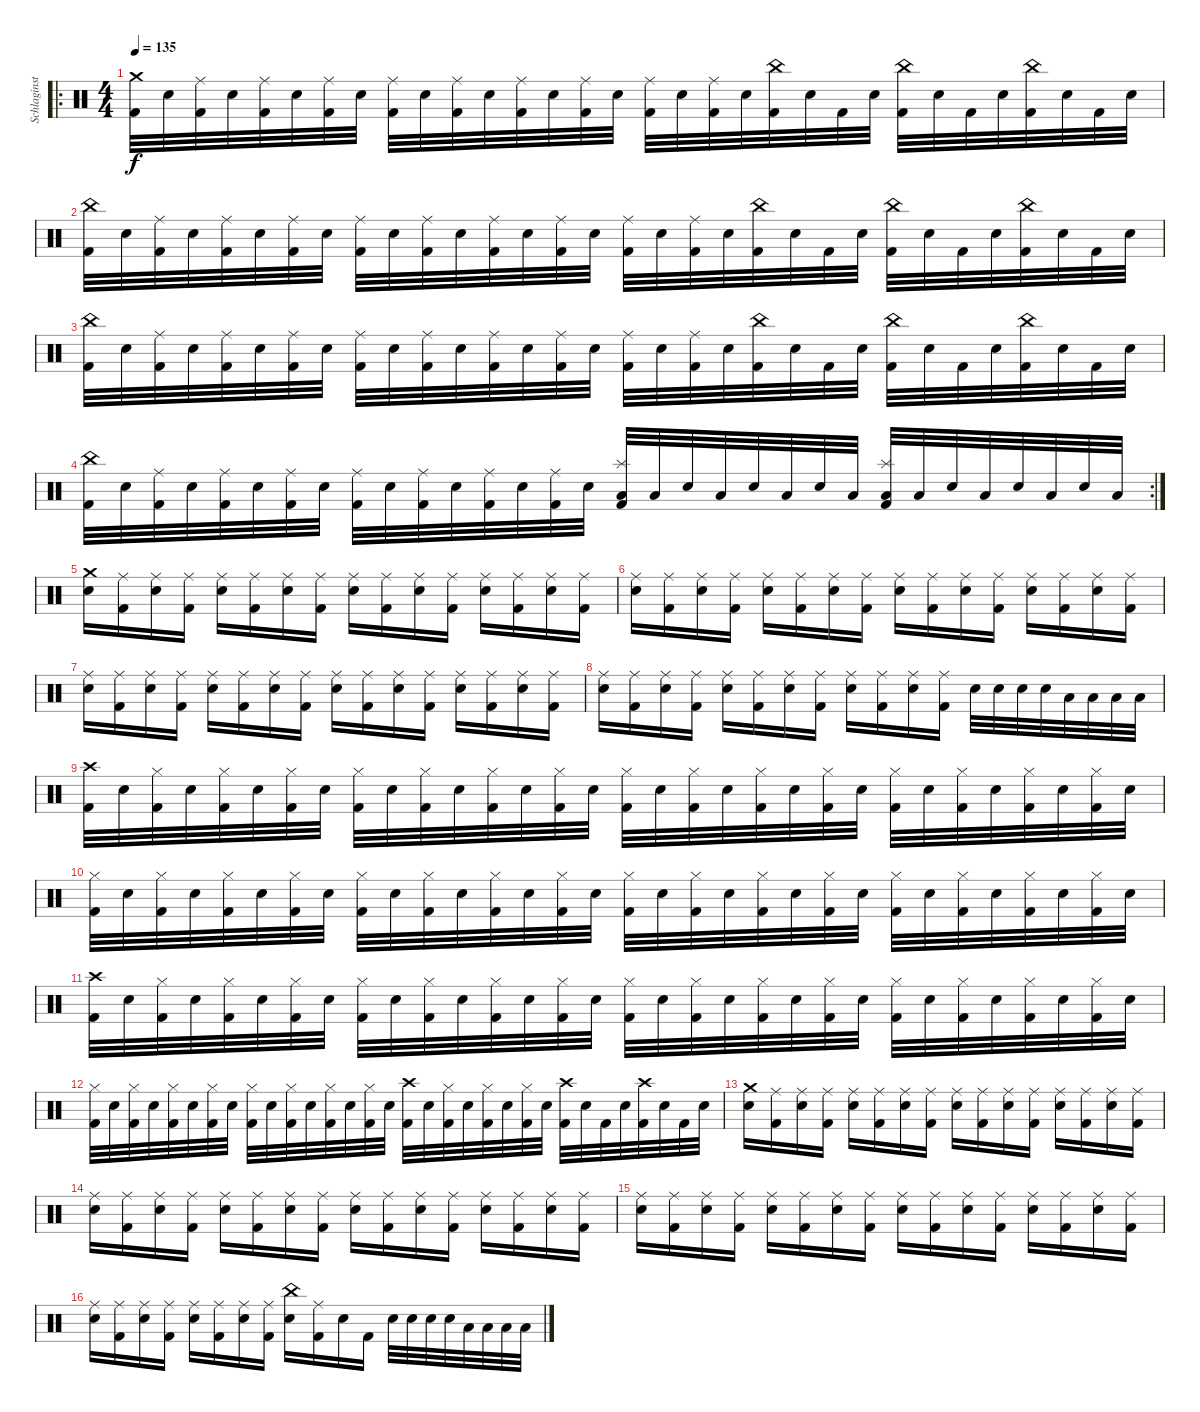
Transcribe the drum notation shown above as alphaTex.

\track ("Schlaginstrumente - Auswahl" "Schlaginst") {instrument percussion}
\staff {score}
\articulation defaults
\ro
\ts (4 4)
\tempo 135
\clef neutral
\ks c
("Crash medium (hit)" "Kick (hit) 2").32{dy f} "Electric Snare (hit)".32 ("Ride (middle)" "Kick (hit) 2").32 "Electric Snare (hit)".32 ("Ride (middle)" "Kick (hit) 2").32 "Electric Snare (hit)".32 ("Ride (middle)" "Kick (hit) 2").32 "Electric Snare (hit)".32 ("Ride (middle)" "Kick (hit) 2").32 "Electric Snare (hit)".32 ("Ride (middle)" "Kick (hit) 2").32 "Electric Snare (hit)".32 ("Ride (middle)" "Kick (hit) 2").32 "Electric Snare (hit)".32 ("Ride (middle)" "Kick (hit) 2").32 "Electric Snare (hit)".32 ("Ride (middle)" "Kick (hit) 2").32 "Electric Snare (hit)".32 ("Ride (middle)" "Kick (hit) 2").32 "Electric Snare (hit)".32 ("China (hit)" "Kick (hit) 2").32 "Electric Snare (hit)".32 "Kick (hit) 2".32 "Electric Snare (hit)".32 ("China (hit)" "Kick (hit) 2").32 "Electric Snare (hit)".32 "Kick (hit) 2".32 "Electric Snare (hit)".32 ("China (hit)" "Kick (hit) 2").32 "Electric Snare (hit)".32 "Kick (hit) 2".32 "Electric Snare (hit)".32 |
("China (hit)" "Kick (hit) 2").32 "Electric Snare (hit)".32 ("Ride (middle)" "Kick (hit) 2").32 "Electric Snare (hit)".32 ("Ride (middle)" "Kick (hit) 2").32 "Electric Snare (hit)".32 ("Ride (middle)" "Kick (hit) 2").32 "Electric Snare (hit)".32 ("Ride (middle)" "Kick (hit) 2").32 "Electric Snare (hit)".32 ("Ride (middle)" "Kick (hit) 2").32 "Electric Snare (hit)".32 ("Ride (middle)" "Kick (hit) 2").32 "Electric Snare (hit)".32 ("Ride (middle)" "Kick (hit) 2").32 "Electric Snare (hit)".32 ("Ride (middle)" "Kick (hit) 2").32 "Electric Snare (hit)".32 ("Ride (middle)" "Kick (hit) 2").32 "Electric Snare (hit)".32 ("China (hit)" "Kick (hit) 2").32 "Electric Snare (hit)".32 "Kick (hit) 2".32 "Electric Snare (hit)".32 ("China (hit)" "Kick (hit) 2").32 "Electric Snare (hit)".32 "Kick (hit) 2".32 "Electric Snare (hit)".32 ("China (hit)" "Kick (hit) 2").32 "Electric Snare (hit)".32 "Kick (hit) 2".32 "Electric Snare (hit)".32 |
("China (hit)" "Kick (hit) 2").32 "Electric Snare (hit)".32 ("Ride (middle)" "Kick (hit) 2").32 "Electric Snare (hit)".32 ("Ride (middle)" "Kick (hit) 2").32 "Electric Snare (hit)".32 ("Ride (middle)" "Kick (hit) 2").32 "Electric Snare (hit)".32 ("Ride (middle)" "Kick (hit) 2").32 "Electric Snare (hit)".32 ("Ride (middle)" "Kick (hit) 2").32 "Electric Snare (hit)".32 ("Ride (middle)" "Kick (hit) 2").32 "Electric Snare (hit)".32 ("Ride (middle)" "Kick (hit) 2").32 "Electric Snare (hit)".32 ("Ride (middle)" "Kick (hit) 2").32 "Electric Snare (hit)".32 ("Ride (middle)" "Kick (hit) 2").32 "Electric Snare (hit)".32 ("China (hit)" "Kick (hit) 2").32 "Electric Snare (hit)".32 "Kick (hit) 2".32 "Electric Snare (hit)".32 ("China (hit)" "Kick (hit) 2").32 "Electric Snare (hit)".32 "Kick (hit) 2".32 "Electric Snare (hit)".32 ("China (hit)" "Kick (hit) 2").32 "Electric Snare (hit)".32 "Kick (hit) 2".32 "Electric Snare (hit)".32 |
\rc 2
("China (hit)" "Kick (hit) 2").32 "Electric Snare (hit)".32 ("Ride (middle)" "Kick (hit) 2").32 "Electric Snare (hit)".32 ("Ride (middle)" "Kick (hit) 2").32 "Electric Snare (hit)".32 ("Ride (middle)" "Kick (hit) 2").32 "Electric Snare (hit)".32 ("Ride (middle)" "Kick (hit) 2").32 "Electric Snare (hit)".32 ("Ride (middle)" "Kick (hit) 2").32 "Electric Snare (hit)".32 ("Ride (middle)" "Kick (hit) 2").32 "Electric Snare (hit)".32 ("Ride (middle)" "Kick (hit) 2").32 "Electric Snare (hit)".32 ("Splash (hit)" "Low Tom (hit)" "Kick (hit) 2").32 "Low Tom (hit)".32 "Electric Snare (hit)".32 "Low Tom (hit)".32 "Electric Snare (hit)".32 "Low Tom (hit)".32 "Electric Snare (hit)".32 "Low Tom (hit)".32 ("Splash (hit)" "Low Tom (hit)" "Kick (hit) 2").32 "Low Tom (hit)".32 "Electric Snare (hit)".32 "Low Tom (hit)".32 "Electric Snare (hit)".32 "Low Tom (hit)".32 "Electric Snare (hit)".32 "Low Tom (hit)".32 |
("Crash medium (hit)" "Electric Snare (hit)").16 ("Ride (middle)" "Kick (hit) 2").16 ("Ride (middle)" "Electric Snare (hit)").16 ("Ride (middle)" "Kick (hit) 2").16 ("Ride (middle)" "Electric Snare (hit)").16 ("Ride (middle)" "Kick (hit) 2").16 ("Ride (middle)" "Electric Snare (hit)").16 ("Ride (middle)" "Kick (hit) 2").16 ("Ride (middle)" "Electric Snare (hit)").16 ("Ride (middle)" "Kick (hit) 2").16 ("Ride (middle)" "Electric Snare (hit)").16 ("Ride (middle)" "Kick (hit) 2").16 ("Ride (middle)" "Electric Snare (hit)").16 ("Ride (middle)" "Kick (hit) 2").16 ("Ride (middle)" "Electric Snare (hit)").16 ("Ride (middle)" "Kick (hit) 2").16 |
("Ride (middle)" "Electric Snare (hit)").16 ("Ride (middle)" "Kick (hit) 2").16 ("Ride (middle)" "Electric Snare (hit)").16 ("Ride (middle)" "Kick (hit) 2").16 ("Ride (middle)" "Electric Snare (hit)").16 ("Ride (middle)" "Kick (hit) 2").16 ("Ride (middle)" "Electric Snare (hit)").16 ("Ride (middle)" "Kick (hit) 2").16 ("Ride (middle)" "Electric Snare (hit)").16 ("Ride (middle)" "Kick (hit) 2").16 ("Ride (middle)" "Electric Snare (hit)").16 ("Ride (middle)" "Kick (hit) 2").16 ("Ride (middle)" "Electric Snare (hit)").16 ("Ride (middle)" "Kick (hit) 2").16 ("Ride (middle)" "Electric Snare (hit)").16 ("Ride (middle)" "Kick (hit) 2").16 |
("Ride (middle)" "Electric Snare (hit)").16 ("Ride (middle)" "Kick (hit) 2").16 ("Ride (middle)" "Electric Snare (hit)").16 ("Ride (middle)" "Kick (hit) 2").16 ("Ride (middle)" "Electric Snare (hit)").16 ("Ride (middle)" "Kick (hit) 2").16 ("Ride (middle)" "Electric Snare (hit)").16 ("Ride (middle)" "Kick (hit) 2").16 ("Ride (middle)" "Electric Snare (hit)").16 ("Ride (middle)" "Kick (hit) 2").16 ("Ride (middle)" "Electric Snare (hit)").16 ("Ride (middle)" "Kick (hit) 2").16 ("Ride (middle)" "Electric Snare (hit)").16 ("Ride (middle)" "Kick (hit) 2").16 ("Ride (middle)" "Electric Snare (hit)").16 ("Ride (middle)" "Kick (hit) 2").16 |
("Ride (middle)" "Electric Snare (hit)").16 ("Ride (middle)" "Kick (hit) 2").16 ("Ride (middle)" "Electric Snare (hit)").16 ("Ride (middle)" "Kick (hit) 2").16 ("Ride (middle)" "Electric Snare (hit)").16 ("Ride (middle)" "Kick (hit) 2").16 ("Ride (middle)" "Electric Snare (hit)").16 ("Ride (middle)" "Kick (hit) 2").16 ("Ride (middle)" "Electric Snare (hit)").16 ("Ride (middle)" "Kick (hit) 2").16 ("Ride (middle)" "Electric Snare (hit)").16 ("Ride (middle)" "Kick (hit) 2").16 "Electric Snare (hit)".32 "Electric Snare (hit)".32 "Electric Snare (hit)".32 "Electric Snare (hit)".32 "Low Tom (hit)".32 "Low Tom (hit)".32 "Low Tom (hit)".32 "Low Tom (hit)".32 |
("Crash high (hit)" "Kick (hit) 2").32 "Electric Snare (hit)".32 ("Hi-Hat (closed)" "Kick (hit) 2").32 "Electric Snare (hit)".32 ("Hi-Hat (closed)" "Kick (hit) 2").32 "Electric Snare (hit)".32 ("Hi-Hat (closed)" "Kick (hit) 2").32 "Electric Snare (hit)".32 ("Hi-Hat (closed)" "Kick (hit) 2").32 "Electric Snare (hit)".32 ("Hi-Hat (closed)" "Kick (hit) 2").32 "Electric Snare (hit)".32 ("Hi-Hat (closed)" "Kick (hit) 2").32 "Electric Snare (hit)".32 ("Hi-Hat (closed)" "Kick (hit) 2").32 "Electric Snare (hit)".32 ("Hi-Hat (closed)" "Kick (hit) 2").32 "Electric Snare (hit)".32 ("Hi-Hat (closed)" "Kick (hit) 2").32 "Electric Snare (hit)".32 ("Hi-Hat (closed)" "Kick (hit) 2").32 "Electric Snare (hit)".32 ("Hi-Hat (closed)" "Kick (hit) 2").32 "Electric Snare (hit)".32 ("Hi-Hat (closed)" "Kick (hit) 2").32 "Electric Snare (hit)".32 ("Hi-Hat (closed)" "Kick (hit) 2").32 "Electric Snare (hit)".32 ("Hi-Hat (closed)" "Kick (hit) 2").32 "Electric Snare (hit)".32 ("Hi-Hat (closed)" "Kick (hit) 2").32 "Electric Snare (hit)".32 |
("Hi-Hat (closed)" "Kick (hit) 2").32 "Electric Snare (hit)".32 ("Hi-Hat (closed)" "Kick (hit) 2").32 "Electric Snare (hit)".32 ("Hi-Hat (closed)" "Kick (hit) 2").32 "Electric Snare (hit)".32 ("Hi-Hat (closed)" "Kick (hit) 2").32 "Electric Snare (hit)".32 ("Hi-Hat (closed)" "Kick (hit) 2").32 "Electric Snare (hit)".32 ("Hi-Hat (closed)" "Kick (hit) 2").32 "Electric Snare (hit)".32 ("Hi-Hat (closed)" "Kick (hit) 2").32 "Electric Snare (hit)".32 ("Hi-Hat (closed)" "Kick (hit) 2").32 "Electric Snare (hit)".32 ("Hi-Hat (closed)" "Kick (hit) 2").32 "Electric Snare (hit)".32 ("Hi-Hat (closed)" "Kick (hit) 2").32 "Electric Snare (hit)".32 ("Hi-Hat (closed)" "Kick (hit) 2").32 "Electric Snare (hit)".32 ("Hi-Hat (closed)" "Kick (hit) 2").32 "Electric Snare (hit)".32 ("Hi-Hat (closed)" "Kick (hit) 2").32 "Electric Snare (hit)".32 ("Hi-Hat (closed)" "Kick (hit) 2").32 "Electric Snare (hit)".32 ("Hi-Hat (closed)" "Kick (hit) 2").32 "Electric Snare (hit)".32 ("Hi-Hat (closed)" "Kick (hit) 2").32 "Electric Snare (hit)".32 |
("Crash high (hit)" "Kick (hit) 2").32 "Electric Snare (hit)".32 ("Hi-Hat (closed)" "Kick (hit) 2").32 "Electric Snare (hit)".32 ("Hi-Hat (closed)" "Kick (hit) 2").32 "Electric Snare (hit)".32 ("Hi-Hat (closed)" "Kick (hit) 2").32 "Electric Snare (hit)".32 ("Hi-Hat (closed)" "Kick (hit) 2").32 "Electric Snare (hit)".32 ("Hi-Hat (closed)" "Kick (hit) 2").32 "Electric Snare (hit)".32 ("Hi-Hat (closed)" "Kick (hit) 2").32 "Electric Snare (hit)".32 ("Hi-Hat (closed)" "Kick (hit) 2").32 "Electric Snare (hit)".32 ("Hi-Hat (closed)" "Kick (hit) 2").32 "Electric Snare (hit)".32 ("Hi-Hat (closed)" "Kick (hit) 2").32 "Electric Snare (hit)".32 ("Hi-Hat (closed)" "Kick (hit) 2").32 "Electric Snare (hit)".32 ("Hi-Hat (closed)" "Kick (hit) 2").32 "Electric Snare (hit)".32 ("Hi-Hat (closed)" "Kick (hit) 2").32 "Electric Snare (hit)".32 ("Hi-Hat (closed)" "Kick (hit) 2").32 "Electric Snare (hit)".32 ("Hi-Hat (closed)" "Kick (hit) 2").32 "Electric Snare (hit)".32 ("Hi-Hat (closed)" "Kick (hit) 2").32 "Electric Snare (hit)".32 |
("Hi-Hat (closed)" "Kick (hit) 2").32 "Electric Snare (hit)".32 ("Hi-Hat (closed)" "Kick (hit) 2").32 "Electric Snare (hit)".32 ("Hi-Hat (closed)" "Kick (hit) 2").32 "Electric Snare (hit)".32 ("Hi-Hat (closed)" "Kick (hit) 2").32 "Electric Snare (hit)".32 ("Hi-Hat (closed)" "Kick (hit) 2").32 "Electric Snare (hit)".32 ("Hi-Hat (closed)" "Kick (hit) 2").32 "Electric Snare (hit)".32 ("Hi-Hat (closed)" "Kick (hit) 2").32 "Electric Snare (hit)".32 ("Hi-Hat (closed)" "Kick (hit) 2").32 "Electric Snare (hit)".32 ("Crash high (hit)" "Kick (hit) 2").32 "Electric Snare (hit)".32 ("Hi-Hat (closed)" "Kick (hit) 2").32 "Electric Snare (hit)".32 ("Hi-Hat (closed)" "Kick (hit) 2").32 "Electric Snare (hit)".32 ("Hi-Hat (closed)" "Kick (hit) 2").32 "Electric Snare (hit)".32 ("Crash high (hit)" "Kick (hit) 2").32 "Electric Snare (hit)".32 "Kick (hit) 2".32 "Electric Snare (hit)".32 ("Crash high (hit)" "Kick (hit) 2").32 "Electric Snare (hit)".32 "Kick (hit) 2".32 "Electric Snare (hit)".32 |
("Crash medium (hit)" "Electric Snare (hit)").16 ("Ride (middle)" "Kick (hit) 2").16 ("Ride (middle)" "Electric Snare (hit)").16 ("Ride (middle)" "Kick (hit) 2").16 ("Ride (middle)" "Electric Snare (hit)").16 ("Ride (middle)" "Kick (hit) 2").16 ("Ride (middle)" "Electric Snare (hit)").16 ("Ride (middle)" "Kick (hit) 2").16 ("Ride (middle)" "Electric Snare (hit)").16 ("Ride (middle)" "Kick (hit) 2").16 ("Ride (middle)" "Electric Snare (hit)").16 ("Ride (middle)" "Kick (hit) 2").16 ("Ride (middle)" "Electric Snare (hit)").16 ("Ride (middle)" "Kick (hit) 2").16 ("Ride (middle)" "Electric Snare (hit)").16 ("Ride (middle)" "Kick (hit) 2").16 |
("Ride (middle)" "Electric Snare (hit)").16 ("Ride (middle)" "Kick (hit) 2").16 ("Ride (middle)" "Electric Snare (hit)").16 ("Ride (middle)" "Kick (hit) 2").16 ("Ride (middle)" "Electric Snare (hit)").16 ("Ride (middle)" "Kick (hit) 2").16 ("Ride (middle)" "Electric Snare (hit)").16 ("Ride (middle)" "Kick (hit) 2").16 ("Ride (middle)" "Electric Snare (hit)").16 ("Ride (middle)" "Kick (hit) 2").16 ("Ride (middle)" "Electric Snare (hit)").16 ("Ride (middle)" "Kick (hit) 2").16 ("Ride (middle)" "Electric Snare (hit)").16 ("Ride (middle)" "Kick (hit) 2").16 ("Ride (middle)" "Electric Snare (hit)").16 ("Ride (middle)" "Kick (hit) 2").16 |
("Ride (middle)" "Electric Snare (hit)").16 ("Ride (middle)" "Kick (hit) 2").16 ("Ride (middle)" "Electric Snare (hit)").16 ("Ride (middle)" "Kick (hit) 2").16 ("Ride (middle)" "Electric Snare (hit)").16 ("Ride (middle)" "Kick (hit) 2").16 ("Ride (middle)" "Electric Snare (hit)").16 ("Ride (middle)" "Kick (hit) 2").16 ("Ride (middle)" "Electric Snare (hit)").16 ("Ride (middle)" "Kick (hit) 2").16 ("Ride (middle)" "Electric Snare (hit)").16 ("Ride (middle)" "Kick (hit) 2").16 ("Ride (middle)" "Electric Snare (hit)").16 ("Ride (middle)" "Kick (hit) 2").16 ("Ride (middle)" "Electric Snare (hit)").16 ("Ride (middle)" "Kick (hit) 2").16 |
("Ride (middle)" "Electric Snare (hit)").16 ("Ride (middle)" "Kick (hit) 2").16 ("Ride (middle)" "Electric Snare (hit)").16 ("Ride (middle)" "Kick (hit) 2").16 ("Ride (middle)" "Electric Snare (hit)").16 ("Ride (middle)" "Kick (hit) 2").16 ("Ride (middle)" "Electric Snare (hit)").16 ("Ride (middle)" "Kick (hit) 2").16 ("China (hit)" "Electric Snare (hit)").16 ("Ride (middle)" "Kick (hit) 2").16 "Electric Snare (hit)".16 "Kick (hit) 2".16 "Electric Snare (hit)".32 "Electric Snare (hit)".32 "Electric Snare (hit)".32 "Electric Snare (hit)".32 "Low Tom (hit)".32 "Low Tom (hit)".32 "Low Tom (hit)".32 "Low Tom (hit)".32
